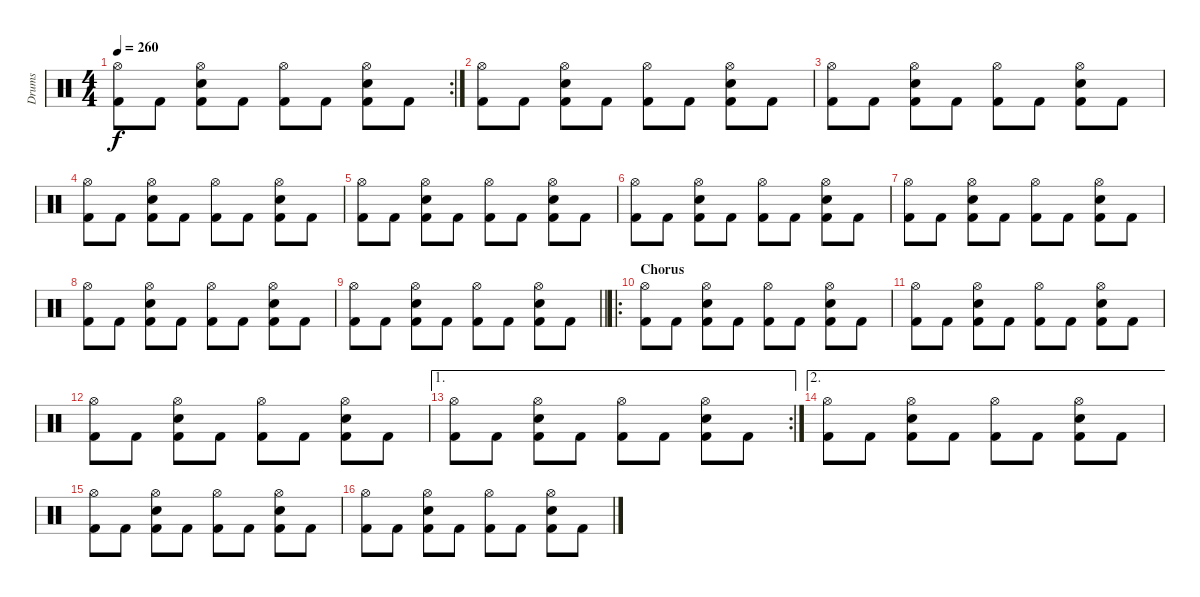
\track ("Drums" "Drums") {instrument percussion}
\staff {score}
\articulation defaults
\rc 2
\ts (4 4)
\tempo 260
\clef neutral
\ks c
("Hi-Hat (open)" "Kick (hit) 2").8{dy f} "Kick (hit) 2".8 ("Hi-Hat (open)" "Snare (hit) 2" "Kick (hit) 2").8 "Kick (hit) 2".8 ("Hi-Hat (open)" "Kick (hit) 2").8 "Kick (hit) 2".8 ("Hi-Hat (open)" "Snare (hit) 2" "Kick (hit) 2").8 "Kick (hit) 2".8 |
("Hi-Hat (open)" "Kick (hit) 2").8 "Kick (hit) 2".8 ("Hi-Hat (open)" "Snare (hit) 2" "Kick (hit) 2").8 "Kick (hit) 2".8 ("Hi-Hat (open)" "Kick (hit) 2").8 "Kick (hit) 2".8 ("Hi-Hat (open)" "Snare (hit) 2" "Kick (hit) 2").8 "Kick (hit) 2".8 |
("Hi-Hat (open)" "Kick (hit) 2").8 "Kick (hit) 2".8 ("Hi-Hat (open)" "Snare (hit) 2" "Kick (hit) 2").8 "Kick (hit) 2".8 ("Hi-Hat (open)" "Kick (hit) 2").8 "Kick (hit) 2".8 ("Hi-Hat (open)" "Snare (hit) 2" "Kick (hit) 2").8 "Kick (hit) 2".8 |
("Hi-Hat (open)" "Kick (hit) 2").8 "Kick (hit) 2".8 ("Hi-Hat (open)" "Snare (hit) 2" "Kick (hit) 2").8 "Kick (hit) 2".8 ("Hi-Hat (open)" "Kick (hit) 2").8 "Kick (hit) 2".8 ("Hi-Hat (open)" "Snare (hit) 2" "Kick (hit) 2").8 "Kick (hit) 2".8 |
("Hi-Hat (open)" "Kick (hit) 2").8 "Kick (hit) 2".8 ("Hi-Hat (open)" "Snare (hit) 2" "Kick (hit) 2").8 "Kick (hit) 2".8 ("Hi-Hat (open)" "Kick (hit) 2").8 "Kick (hit) 2".8 ("Hi-Hat (open)" "Snare (hit) 2" "Kick (hit) 2").8 "Kick (hit) 2".8 |
("Hi-Hat (open)" "Kick (hit) 2").8 "Kick (hit) 2".8 ("Hi-Hat (open)" "Snare (hit) 2" "Kick (hit) 2").8 "Kick (hit) 2".8 ("Hi-Hat (open)" "Kick (hit) 2").8 "Kick (hit) 2".8 ("Hi-Hat (open)" "Snare (hit) 2" "Kick (hit) 2").8 "Kick (hit) 2".8 |
("Hi-Hat (open)" "Kick (hit) 2").8 "Kick (hit) 2".8 ("Hi-Hat (open)" "Snare (hit) 2" "Kick (hit) 2").8 "Kick (hit) 2".8 ("Hi-Hat (open)" "Kick (hit) 2").8 "Kick (hit) 2".8 ("Hi-Hat (open)" "Snare (hit) 2" "Kick (hit) 2").8 "Kick (hit) 2".8 |
("Hi-Hat (open)" "Kick (hit) 2").8 "Kick (hit) 2".8 ("Hi-Hat (open)" "Snare (hit) 2" "Kick (hit) 2").8 "Kick (hit) 2".8 ("Hi-Hat (open)" "Kick (hit) 2").8 "Kick (hit) 2".8 ("Hi-Hat (open)" "Snare (hit) 2" "Kick (hit) 2").8 "Kick (hit) 2".8 |
\barLineRight lightlight
("Hi-Hat (open)" "Kick (hit) 2").8 "Kick (hit) 2".8 ("Hi-Hat (open)" "Snare (hit) 2" "Kick (hit) 2").8 "Kick (hit) 2".8 ("Hi-Hat (open)" "Kick (hit) 2").8 "Kick (hit) 2".8 ("Hi-Hat (open)" "Snare (hit) 2" "Kick (hit) 2").8 "Kick (hit) 2".8 |
\ro
\section ("" "Chorus")
("Hi-Hat (open)" "Kick (hit) 2").8 "Kick (hit) 2".8 ("Hi-Hat (open)" "Snare (hit) 2" "Kick (hit) 2").8 "Kick (hit) 2".8 ("Hi-Hat (open)" "Kick (hit) 2").8 "Kick (hit) 2".8 ("Hi-Hat (open)" "Snare (hit) 2" "Kick (hit) 2").8 "Kick (hit) 2".8 |
("Hi-Hat (open)" "Kick (hit) 2").8 "Kick (hit) 2".8 ("Hi-Hat (open)" "Snare (hit) 2" "Kick (hit) 2").8 "Kick (hit) 2".8 ("Hi-Hat (open)" "Kick (hit) 2").8 "Kick (hit) 2".8 ("Hi-Hat (open)" "Snare (hit) 2" "Kick (hit) 2").8 "Kick (hit) 2".8 |
("Hi-Hat (open)" "Kick (hit) 2").8 "Kick (hit) 2".8 ("Hi-Hat (open)" "Snare (hit) 2" "Kick (hit) 2").8 "Kick (hit) 2".8 ("Hi-Hat (open)" "Kick (hit) 2").8 "Kick (hit) 2".8 ("Hi-Hat (open)" "Snare (hit) 2" "Kick (hit) 2").8 "Kick (hit) 2".8 |
\ae 1
\rc 2
("Hi-Hat (open)" "Kick (hit) 2").8 "Kick (hit) 2".8 ("Hi-Hat (open)" "Snare (hit) 2" "Kick (hit) 2").8 "Kick (hit) 2".8 ("Hi-Hat (open)" "Kick (hit) 2").8 "Kick (hit) 2".8 ("Hi-Hat (open)" "Snare (hit) 2" "Kick (hit) 2").8 "Kick (hit) 2".8 |
\ae 2
("Hi-Hat (open)" "Kick (hit) 2").8 "Kick (hit) 2".8 ("Hi-Hat (open)" "Snare (hit) 2" "Kick (hit) 2").8 "Kick (hit) 2".8 ("Hi-Hat (open)" "Kick (hit) 2").8 "Kick (hit) 2".8 ("Hi-Hat (open)" "Snare (hit) 2" "Kick (hit) 2").8 "Kick (hit) 2".8 |
("Hi-Hat (open)" "Kick (hit) 2").8 "Kick (hit) 2".8 ("Hi-Hat (open)" "Snare (hit) 2" "Kick (hit) 2").8 "Kick (hit) 2".8 ("Hi-Hat (open)" "Kick (hit) 2").8 "Kick (hit) 2".8 ("Hi-Hat (open)" "Snare (hit) 2" "Kick (hit) 2").8 "Kick (hit) 2".8 |
("Hi-Hat (open)" "Kick (hit) 2").8 "Kick (hit) 2".8 ("Hi-Hat (open)" "Snare (hit) 2" "Kick (hit) 2").8 "Kick (hit) 2".8 ("Hi-Hat (open)" "Kick (hit) 2").8 "Kick (hit) 2".8 ("Hi-Hat (open)" "Snare (hit) 2" "Kick (hit) 2").8 "Kick (hit) 2".8
